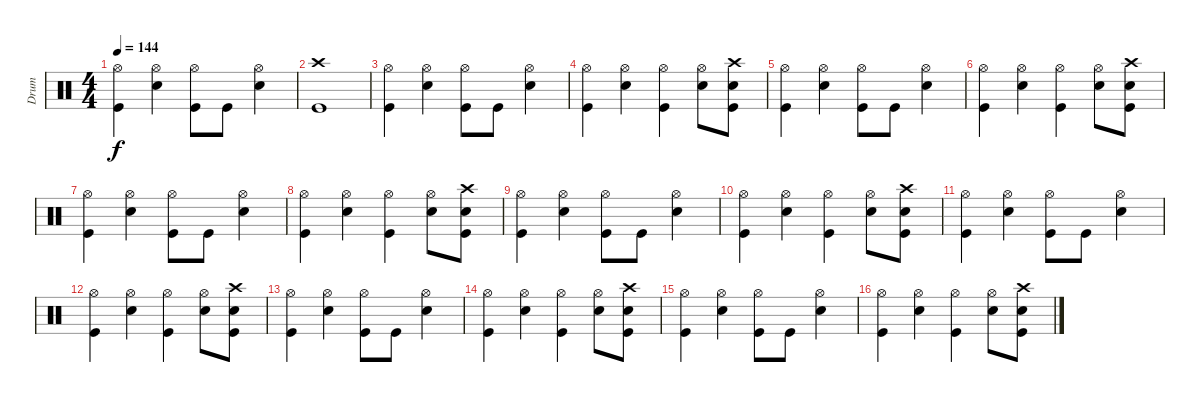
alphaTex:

\track ("Drum" "Drum") {instrument percussion}
\staff {score}
\articulation defaults
\ts (4 4)
\tempo 144
\clef neutral
\ks c
("Hi-Hat (open)" "Kick (hit)").4{dy f} ("Hi-Hat (open)" "Electric Snare (hit)").4 ("Hi-Hat (open)" "Kick (hit)").8 "Kick (hit)".8 ("Hi-Hat (open)" "Electric Snare (hit)").4 |
("Crash high (hit)" "Kick (hit)").1 |
("Hi-Hat (open)" "Kick (hit)").4 ("Hi-Hat (open)" "Electric Snare (hit)").4 ("Hi-Hat (open)" "Kick (hit)").8 "Kick (hit)".8 ("Hi-Hat (open)" "Electric Snare (hit)").4 |
("Hi-Hat (open)" "Kick (hit)").4 ("Hi-Hat (open)" "Electric Snare (hit)").4 ("Hi-Hat (open)" "Kick (hit)").4 ("Hi-Hat (open)" "Electric Snare (hit)").8 ("Crash high (hit)" "Electric Snare (hit)" "Kick (hit)").8 |
("Hi-Hat (open)" "Kick (hit)").4 ("Hi-Hat (open)" "Electric Snare (hit)").4 ("Hi-Hat (open)" "Kick (hit)").8 "Kick (hit)".8 ("Hi-Hat (open)" "Electric Snare (hit)").4 |
("Hi-Hat (open)" "Kick (hit)").4 ("Hi-Hat (open)" "Electric Snare (hit)").4 ("Hi-Hat (open)" "Kick (hit)").4 ("Hi-Hat (open)" "Electric Snare (hit)").8 ("Crash high (hit)" "Electric Snare (hit)" "Kick (hit)").8 |
("Hi-Hat (open)" "Kick (hit)").4 ("Hi-Hat (open)" "Electric Snare (hit)").4 ("Hi-Hat (open)" "Kick (hit)").8 "Kick (hit)".8 ("Hi-Hat (open)" "Electric Snare (hit)").4 |
("Hi-Hat (open)" "Kick (hit)").4 ("Hi-Hat (open)" "Electric Snare (hit)").4 ("Hi-Hat (open)" "Kick (hit)").4 ("Hi-Hat (open)" "Electric Snare (hit)").8 ("Crash high (hit)" "Electric Snare (hit)" "Kick (hit)").8 |
("Hi-Hat (open)" "Kick (hit)").4 ("Hi-Hat (open)" "Electric Snare (hit)").4 ("Hi-Hat (open)" "Kick (hit)").8 "Kick (hit)".8 ("Hi-Hat (open)" "Electric Snare (hit)").4 |
("Hi-Hat (open)" "Kick (hit)").4 ("Hi-Hat (open)" "Electric Snare (hit)").4 ("Hi-Hat (open)" "Kick (hit)").4 ("Hi-Hat (open)" "Electric Snare (hit)").8 ("Crash high (hit)" "Electric Snare (hit)" "Kick (hit)").8 |
("Hi-Hat (open)" "Kick (hit)").4 ("Hi-Hat (open)" "Electric Snare (hit)").4 ("Hi-Hat (open)" "Kick (hit)").8 "Kick (hit)".8 ("Hi-Hat (open)" "Electric Snare (hit)").4 |
("Hi-Hat (open)" "Kick (hit)").4 ("Hi-Hat (open)" "Electric Snare (hit)").4 ("Hi-Hat (open)" "Kick (hit)").4 ("Hi-Hat (open)" "Electric Snare (hit)").8 ("Crash high (hit)" "Electric Snare (hit)" "Kick (hit)").8 |
("Hi-Hat (open)" "Kick (hit)").4 ("Hi-Hat (open)" "Electric Snare (hit)").4 ("Hi-Hat (open)" "Kick (hit)").8 "Kick (hit)".8 ("Hi-Hat (open)" "Electric Snare (hit)").4 |
("Hi-Hat (open)" "Kick (hit)").4 ("Hi-Hat (open)" "Electric Snare (hit)").4 ("Hi-Hat (open)" "Kick (hit)").4 ("Hi-Hat (open)" "Electric Snare (hit)").8 ("Crash high (hit)" "Electric Snare (hit)" "Kick (hit)").8 |
("Hi-Hat (open)" "Kick (hit)").4 ("Hi-Hat (open)" "Electric Snare (hit)").4 ("Hi-Hat (open)" "Kick (hit)").8 "Kick (hit)".8 ("Hi-Hat (open)" "Electric Snare (hit)").4 |
("Hi-Hat (open)" "Kick (hit)").4 ("Hi-Hat (open)" "Electric Snare (hit)").4 ("Hi-Hat (open)" "Kick (hit)").4 ("Hi-Hat (open)" "Electric Snare (hit)").8 ("Crash high (hit)" "Electric Snare (hit)" "Kick (hit)").8
